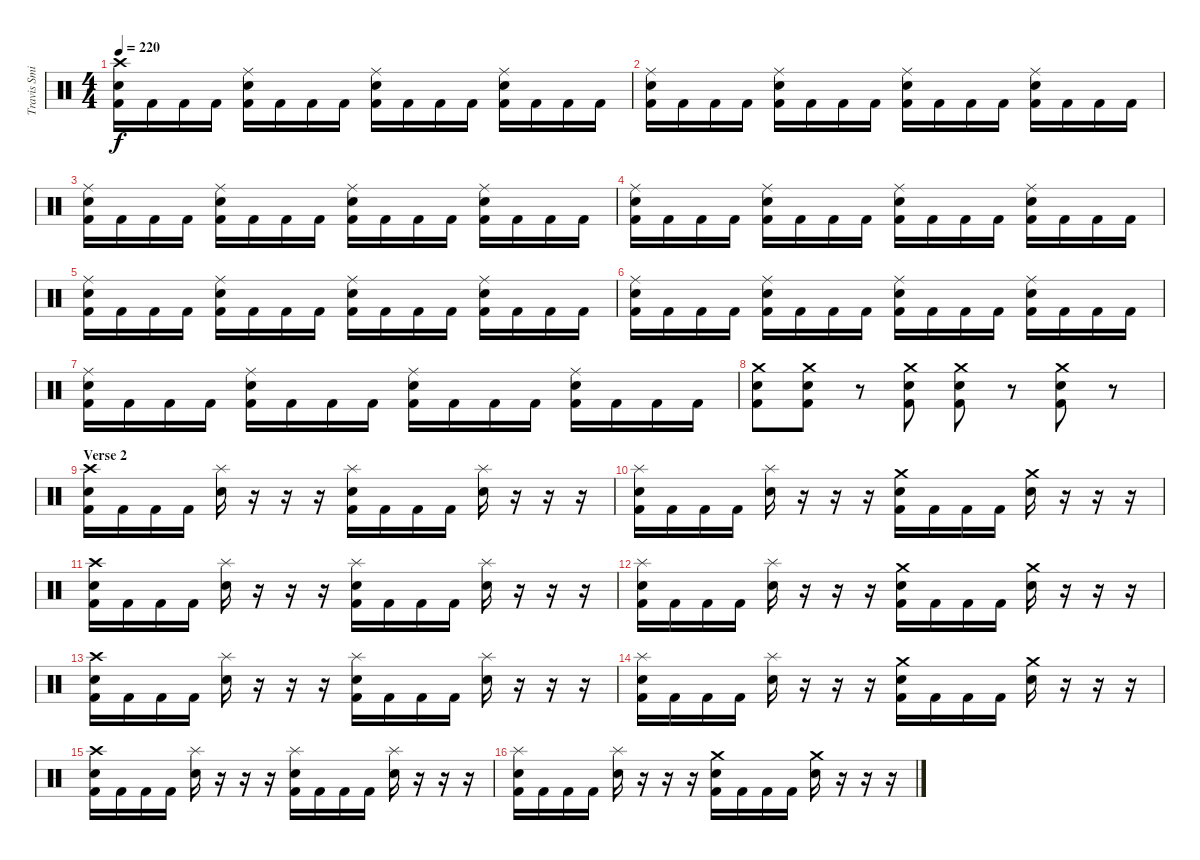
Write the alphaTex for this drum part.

\track ("Travis Smith" "Travis Smi") {instrument percussion}
\staff {score}
\articulation defaults
\ts (4 4)
\tempo 220
\clef neutral
\ks c
("Crash high (hit)" "Electric Snare (hit)" "Kick (hit) 2").16{dy f} "Kick (hit) 2".16 "Kick (hit) 2".16 "Kick (hit) 2".16 ("Ride (middle)" "Electric Snare (hit)" "Kick (hit) 2").16 "Kick (hit) 2".16 "Kick (hit) 2".16 "Kick (hit) 2".16 ("Ride (middle)" "Electric Snare (hit)" "Kick (hit) 2").16 "Kick (hit) 2".16 "Kick (hit) 2".16 "Kick (hit) 2".16 ("Ride (middle)" "Electric Snare (hit)" "Kick (hit) 2").16 "Kick (hit) 2".16 "Kick (hit) 2".16 "Kick (hit) 2".16 |
("Ride (middle)" "Electric Snare (hit)" "Kick (hit) 2").16 "Kick (hit) 2".16 "Kick (hit) 2".16 "Kick (hit) 2".16 ("Ride (middle)" "Electric Snare (hit)" "Kick (hit) 2").16 "Kick (hit) 2".16 "Kick (hit) 2".16 "Kick (hit) 2".16 ("Ride (middle)" "Electric Snare (hit)" "Kick (hit) 2").16 "Kick (hit) 2".16 "Kick (hit) 2".16 "Kick (hit) 2".16 ("Ride (middle)" "Electric Snare (hit)" "Kick (hit) 2").16 "Kick (hit) 2".16 "Kick (hit) 2".16 "Kick (hit) 2".16 |
("Ride (middle)" "Electric Snare (hit)" "Kick (hit) 2").16 "Kick (hit) 2".16 "Kick (hit) 2".16 "Kick (hit) 2".16 ("Ride (middle)" "Electric Snare (hit)" "Kick (hit) 2").16 "Kick (hit) 2".16 "Kick (hit) 2".16 "Kick (hit) 2".16 ("Ride (middle)" "Electric Snare (hit)" "Kick (hit) 2").16 "Kick (hit) 2".16 "Kick (hit) 2".16 "Kick (hit) 2".16 ("Ride (middle)" "Electric Snare (hit)" "Kick (hit) 2").16 "Kick (hit) 2".16 "Kick (hit) 2".16 "Kick (hit) 2".16 |
("Ride (middle)" "Electric Snare (hit)" "Kick (hit) 2").16 "Kick (hit) 2".16 "Kick (hit) 2".16 "Kick (hit) 2".16 ("Ride (middle)" "Electric Snare (hit)" "Kick (hit) 2").16 "Kick (hit) 2".16 "Kick (hit) 2".16 "Kick (hit) 2".16 ("Ride (middle)" "Electric Snare (hit)" "Kick (hit) 2").16 "Kick (hit) 2".16 "Kick (hit) 2".16 "Kick (hit) 2".16 ("Ride (middle)" "Electric Snare (hit)" "Kick (hit) 2").16 "Kick (hit) 2".16 "Kick (hit) 2".16 "Kick (hit) 2".16 |
("Ride (middle)" "Electric Snare (hit)" "Kick (hit) 2").16 "Kick (hit) 2".16 "Kick (hit) 2".16 "Kick (hit) 2".16 ("Ride (middle)" "Electric Snare (hit)" "Kick (hit) 2").16 "Kick (hit) 2".16 "Kick (hit) 2".16 "Kick (hit) 2".16 ("Ride (middle)" "Electric Snare (hit)" "Kick (hit) 2").16 "Kick (hit) 2".16 "Kick (hit) 2".16 "Kick (hit) 2".16 ("Ride (middle)" "Electric Snare (hit)" "Kick (hit) 2").16 "Kick (hit) 2".16 "Kick (hit) 2".16 "Kick (hit) 2".16 |
("Ride (middle)" "Electric Snare (hit)" "Kick (hit) 2").16 "Kick (hit) 2".16 "Kick (hit) 2".16 "Kick (hit) 2".16 ("Ride (middle)" "Electric Snare (hit)" "Kick (hit) 2").16 "Kick (hit) 2".16 "Kick (hit) 2".16 "Kick (hit) 2".16 ("Ride (middle)" "Electric Snare (hit)" "Kick (hit) 2").16 "Kick (hit) 2".16 "Kick (hit) 2".16 "Kick (hit) 2".16 ("Ride (middle)" "Electric Snare (hit)" "Kick (hit) 2").16 "Kick (hit) 2".16 "Kick (hit) 2".16 "Kick (hit) 2".16 |
("Ride (middle)" "Electric Snare (hit)" "Kick (hit) 2").16 "Kick (hit) 2".16 "Kick (hit) 2".16 "Kick (hit) 2".16 ("Ride (middle)" "Electric Snare (hit)" "Kick (hit) 2").16 "Kick (hit) 2".16 "Kick (hit) 2".16 "Kick (hit) 2".16 ("Ride (middle)" "Electric Snare (hit)" "Kick (hit) 2").16 "Kick (hit) 2".16 "Kick (hit) 2".16 "Kick (hit) 2".16 ("Ride (middle)" "Electric Snare (hit)" "Kick (hit) 2").16 "Kick (hit) 2".16 "Kick (hit) 2".16 "Kick (hit) 2".16 |
("Crash medium (hit)" "Electric Snare (hit)" "Kick (hit) 2").8 ("Crash medium (hit)" "Electric Snare (hit)" "Kick (hit) 2").8 r.8 ("Crash medium (hit)" "Electric Snare (hit)" "Kick (hit) 2").8 ("Crash medium (hit)" "Electric Snare (hit)" "Kick (hit) 2").8 r.8 ("Crash medium (hit)" "Electric Snare (hit)" "Kick (hit) 2").8 r.8 |
\section ("" "Verse 2")
("Crash high (hit)" "Electric Snare (hit)" "Kick (hit) 2").16 "Kick (hit) 2".16 "Kick (hit) 2".16 "Kick (hit) 2".16 ("Splash (hit)" "Electric Snare (hit)").16 r.16 r.16 r.16 ("Splash (hit)" "Electric Snare (hit)" "Kick (hit) 2").16 "Kick (hit) 2".16 "Kick (hit) 2".16 "Kick (hit) 2".16 ("Splash (hit)" "Electric Snare (hit)").16 r.16 r.16 r.16 |
("Splash (hit)" "Electric Snare (hit)" "Kick (hit) 2").16 "Kick (hit) 2".16 "Kick (hit) 2".16 "Kick (hit) 2".16 ("Splash (hit)" "Electric Snare (hit)").16 r.16 r.16 r.16 ("Crash medium (hit)" "Electric Snare (hit)" "Kick (hit) 2").16 "Kick (hit) 2".16 "Kick (hit) 2".16 "Kick (hit) 2".16 ("Crash medium (hit)" "Electric Snare (hit)").16 r.16 r.16 r.16 |
("Crash high (hit)" "Electric Snare (hit)" "Kick (hit) 2").16 "Kick (hit) 2".16 "Kick (hit) 2".16 "Kick (hit) 2".16 ("Splash (hit)" "Electric Snare (hit)").16 r.16 r.16 r.16 ("Splash (hit)" "Electric Snare (hit)" "Kick (hit) 2").16 "Kick (hit) 2".16 "Kick (hit) 2".16 "Kick (hit) 2".16 ("Splash (hit)" "Electric Snare (hit)").16 r.16 r.16 r.16 |
("Splash (hit)" "Electric Snare (hit)" "Kick (hit) 2").16 "Kick (hit) 2".16 "Kick (hit) 2".16 "Kick (hit) 2".16 ("Splash (hit)" "Electric Snare (hit)").16 r.16 r.16 r.16 ("Crash medium (hit)" "Electric Snare (hit)" "Kick (hit) 2").16 "Kick (hit) 2".16 "Kick (hit) 2".16 "Kick (hit) 2".16 ("Crash medium (hit)" "Electric Snare (hit)").16 r.16 r.16 r.16 |
("Crash high (hit)" "Electric Snare (hit)" "Kick (hit) 2").16 "Kick (hit) 2".16 "Kick (hit) 2".16 "Kick (hit) 2".16 ("Splash (hit)" "Electric Snare (hit)").16 r.16 r.16 r.16 ("Splash (hit)" "Electric Snare (hit)" "Kick (hit) 2").16 "Kick (hit) 2".16 "Kick (hit) 2".16 "Kick (hit) 2".16 ("Splash (hit)" "Electric Snare (hit)").16 r.16 r.16 r.16 |
("Splash (hit)" "Electric Snare (hit)" "Kick (hit) 2").16 "Kick (hit) 2".16 "Kick (hit) 2".16 "Kick (hit) 2".16 ("Splash (hit)" "Electric Snare (hit)").16 r.16 r.16 r.16 ("Crash medium (hit)" "Electric Snare (hit)" "Kick (hit) 2").16 "Kick (hit) 2".16 "Kick (hit) 2".16 "Kick (hit) 2".16 ("Crash medium (hit)" "Electric Snare (hit)").16 r.16 r.16 r.16 |
("Crash high (hit)" "Electric Snare (hit)" "Kick (hit) 2").16 "Kick (hit) 2".16 "Kick (hit) 2".16 "Kick (hit) 2".16 ("Splash (hit)" "Electric Snare (hit)").16 r.16 r.16 r.16 ("Splash (hit)" "Electric Snare (hit)" "Kick (hit) 2").16 "Kick (hit) 2".16 "Kick (hit) 2".16 "Kick (hit) 2".16 ("Splash (hit)" "Electric Snare (hit)").16 r.16 r.16 r.16 |
("Splash (hit)" "Electric Snare (hit)" "Kick (hit) 2").16 "Kick (hit) 2".16 "Kick (hit) 2".16 "Kick (hit) 2".16 ("Splash (hit)" "Electric Snare (hit)").16 r.16 r.16 r.16 ("Crash medium (hit)" "Electric Snare (hit)" "Kick (hit) 2").16 "Kick (hit) 2".16 "Kick (hit) 2".16 "Kick (hit) 2".16 ("Crash medium (hit)" "Electric Snare (hit)").16 r.16 r.16 r.16
